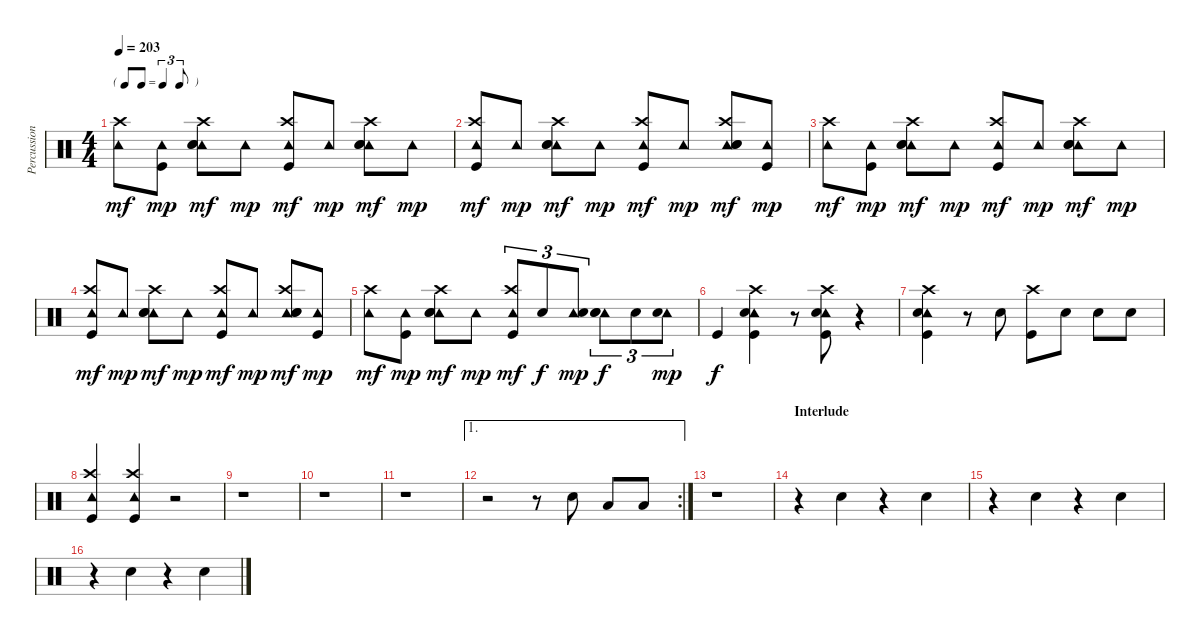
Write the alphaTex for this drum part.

\track ("Percussion" "Percussion") {instrument percussion}
\staff {score}
\articulation defaults
\ts (4 4)
\tf triplet8th
\tempo 203
\clef neutral
\ks c
("Tambourine (hit)" "Crash high (hit)").8{dy mf} ("Tambourine (hit)" "Kick (hit)").8{dy mp} ("Tambourine (hit)" "Crash high (hit)" "Hand Clap (hit)" "Snare (hit) 2").8{dy mf} "Tambourine (hit)".8{dy mp} ("Tambourine (hit)" "Crash high (hit)" "Kick (hit)").8{dy mf} "Tambourine (hit)".8{dy mp} ("Tambourine (hit)" "Crash high (hit)" "Hand Clap (hit)" "Snare (hit) 2").8{dy mf} "Tambourine (hit)".8{dy mp} |
("Tambourine (hit)" "Crash high (hit)" "Kick (hit)").8{dy mf} "Tambourine (hit)".8{dy mp} ("Tambourine (hit)" "Crash high (hit)" "Hand Clap (hit)" "Snare (hit) 2").8{dy mf} "Tambourine (hit)".8{dy mp} ("Tambourine (hit)" "Crash high (hit)" "Kick (hit)").8{dy mf} "Tambourine (hit)".8{dy mp} ("Tambourine (hit)" "Crash high (hit)" "Hand Clap (hit)" "Snare (hit) 2").8{dy mf} ("Tambourine (hit)" "Kick (hit)").8{dy mp} |
("Tambourine (hit)" "Crash high (hit)").8{dy mf} ("Tambourine (hit)" "Kick (hit)").8{dy mp} ("Tambourine (hit)" "Crash high (hit)" "Hand Clap (hit)" "Snare (hit) 2").8{dy mf} "Tambourine (hit)".8{dy mp} ("Tambourine (hit)" "Crash high (hit)" "Kick (hit)").8{dy mf} "Tambourine (hit)".8{dy mp} ("Tambourine (hit)" "Crash high (hit)" "Hand Clap (hit)" "Snare (hit) 2").8{dy mf} "Tambourine (hit)".8{dy mp} |
("Tambourine (hit)" "Crash high (hit)" "Kick (hit)").8{dy mf} "Tambourine (hit)".8{dy mp} ("Tambourine (hit)" "Crash high (hit)" "Hand Clap (hit)" "Snare (hit) 2").8{dy mf} "Tambourine (hit)".8{dy mp} ("Tambourine (hit)" "Crash high (hit)" "Kick (hit)").8{dy mf} "Tambourine (hit)".8{dy mp} ("Tambourine (hit)" "Crash high (hit)" "Hand Clap (hit)" "Snare (hit) 2").8{dy mf} ("Tambourine (hit)" "Kick (hit)").8{dy mp} |
("Tambourine (hit)" "Crash high (hit)").8{dy mf} ("Tambourine (hit)" "Kick (hit)").8{dy mp} ("Tambourine (hit)" "Crash high (hit)" "Hand Clap (hit)" "Snare (hit) 2").8{dy mf} "Tambourine (hit)".8{dy mp} ("Tambourine (hit)" "Crash high (hit)" "Kick (hit)").8{tu (3 2) dy mf} "Snare (hit) 2".8{tu (3 2) dy f} ("Tambourine (hit)" "Snare (hit) 2").8{tu (3 2) dy mp} ("Tambourine (hit)" "Hand Clap (hit)" "Snare (hit) 2").8{tu (3 2) dy f} "Snare (hit) 2".8{tu (3 2)} ("Tambourine (hit)" "Snare (hit) 2").8{tu (3 2) dy mp} |
"Kick (hit)".4{dy f} ("Tambourine (hit)" "Crash high (hit)" "Snare (hit) 2" "Kick (hit)").4 r.8 ("Tambourine (hit)" "Crash high (hit)" "Snare (hit) 2" "Kick (hit)").8 r.4 |
("Tambourine (hit)" "Crash high (hit)" "Snare (hit) 2" "Kick (hit)").4 r.8 "Snare (hit) 2".8 ("Crash high (hit)" "Kick (hit)").8 "Snare (hit) 2".8 "Snare (hit) 2".8 "Snare (hit) 2".8 |
("Tambourine (hit)" "Crash high (hit)" "Kick (hit)").4 ("Tambourine (hit)" "Crash high (hit)" "Kick (hit)").4 r.2 |
r.1 |
r.1 |
r.1 |
\ae 1
\rc 2
r.2 r.8 "Snare (hit) 2".8 "Low Floor Tom (hit)".8 "Low Floor Tom (hit)".8 |
r.1 |
\section ("" "Interlude")
r.4 "Hand Clap (hit)".4 r.4 "Hand Clap (hit)".4 |
r.4 "Hand Clap (hit)".4 r.4 "Hand Clap (hit)".4 |
r.4 "Hand Clap (hit)".4 r.4 "Hand Clap (hit)".4
